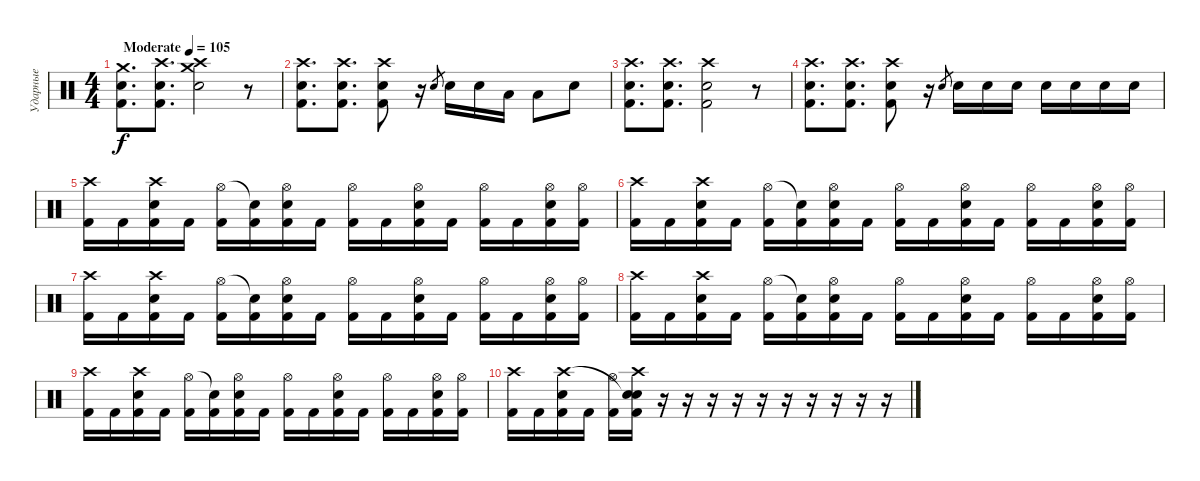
\track ("Ударные" "Ударные") {instrument percussion}
\staff {score}
\articulation defaults
\ts (4 4)
\tempo (105 "Moderate")
\clef neutral
\ks c
("Electric Snare (hit)" "Kick (hit) 2" "Crash medium (hit)").8{d dy f} ("Electric Snare (hit)" "Kick (hit) 2" "Crash high (hit)").8{d} ("Electric Snare (hit)" "Crash high (hit)" "Crash medium (hit)").2 r.8 |
("Electric Snare (hit)" "Kick (hit) 2" "Crash high (hit)").8{d} ("Electric Snare (hit)" "Kick (hit) 2" "Crash high (hit)").8{d} ("Electric Snare (hit)" "Crash high (hit)" "Kick (hit) 2").8 r.16 "Electric Snare (hit)".8{gr} "Electric Snare (hit)".16 "Electric Snare (hit)".16 "Low Floor Tom (hit)".16 "Low Floor Tom (hit)".8 "Electric Snare (hit)".8 |
("Electric Snare (hit)" "Kick (hit) 2" "Crash high (hit)").8{d} ("Electric Snare (hit)" "Kick (hit) 2" "Crash high (hit)").8{d} ("Electric Snare (hit)" "Crash high (hit)" "Kick (hit) 2").2 r.8 |
("Electric Snare (hit)" "Kick (hit) 2" "Crash high (hit)").8{d} ("Electric Snare (hit)" "Kick (hit) 2" "Crash high (hit)").8{d} ("Electric Snare (hit)" "Crash high (hit)" "Kick (hit) 2").8 r.16 "Electric Snare (hit)".8{gr} "Electric Snare (hit)".16 "Electric Snare (hit)".16 "Electric Snare (hit)".16 "Electric Snare (hit)".16 "Electric Snare (hit)".16 "Electric Snare (hit)".16 "Electric Snare (hit)".16 |
("Kick (hit) 2" "Crash high (hit)").16 "Kick (hit) 2".16 ("Kick (hit) 2" "Electric Snare (hit)" "Crash high (hit)").16 "Kick (hit) 2".16 ("Kick (hit) 2" "Hi-Hat (open)").16 ("Kick (hit) 2" "Snare (hit)"{t}).16 ("Kick (hit) 2" "Electric Snare (hit)" "Hi-Hat (open)").16 "Kick (hit) 2".16 ("Kick (hit) 2" "Hi-Hat (open)").16 "Kick (hit) 2".16 ("Kick (hit) 2" "Electric Snare (hit)" "Hi-Hat (open)").16 "Kick (hit) 2".16 ("Kick (hit) 2" "Hi-Hat (open)").16 "Kick (hit) 2".16 ("Kick (hit) 2" "Electric Snare (hit)" "Hi-Hat (open)").16 ("Kick (hit) 2" "Hi-Hat (open)").16 |
("Kick (hit) 2" "Crash high (hit)").16 "Kick (hit) 2".16 ("Kick (hit) 2" "Electric Snare (hit)" "Crash high (hit)").16 "Kick (hit) 2".16 ("Kick (hit) 2" "Hi-Hat (open)").16 ("Kick (hit) 2" "Snare (hit)"{t}).16 ("Kick (hit) 2" "Electric Snare (hit)" "Hi-Hat (open)").16 "Kick (hit) 2".16 ("Kick (hit) 2" "Hi-Hat (open)").16 "Kick (hit) 2".16 ("Kick (hit) 2" "Electric Snare (hit)" "Hi-Hat (open)").16 "Kick (hit) 2".16 ("Kick (hit) 2" "Hi-Hat (open)").16 "Kick (hit) 2".16 ("Kick (hit) 2" "Electric Snare (hit)" "Hi-Hat (open)").16 ("Kick (hit) 2" "Hi-Hat (open)").16 |
("Kick (hit) 2" "Crash high (hit)").16 "Kick (hit) 2".16 ("Kick (hit) 2" "Electric Snare (hit)" "Crash high (hit)").16 "Kick (hit) 2".16 ("Kick (hit) 2" "Hi-Hat (open)").16 ("Kick (hit) 2" "Snare (hit)"{t}).16 ("Kick (hit) 2" "Electric Snare (hit)" "Hi-Hat (open)").16 "Kick (hit) 2".16 ("Kick (hit) 2" "Hi-Hat (open)").16 "Kick (hit) 2".16 ("Kick (hit) 2" "Electric Snare (hit)" "Hi-Hat (open)").16 "Kick (hit) 2".16 ("Kick (hit) 2" "Hi-Hat (open)").16 "Kick (hit) 2".16 ("Kick (hit) 2" "Electric Snare (hit)" "Hi-Hat (open)").16 ("Kick (hit) 2" "Hi-Hat (open)").16 |
("Kick (hit) 2" "Crash high (hit)").16 "Kick (hit) 2".16 ("Kick (hit) 2" "Electric Snare (hit)" "Crash high (hit)").16 "Kick (hit) 2".16 ("Kick (hit) 2" "Hi-Hat (open)").16 ("Kick (hit) 2" "Snare (hit)"{t}).16 ("Kick (hit) 2" "Electric Snare (hit)" "Hi-Hat (open)").16 "Kick (hit) 2".16 ("Kick (hit) 2" "Hi-Hat (open)").16 "Kick (hit) 2".16 ("Kick (hit) 2" "Electric Snare (hit)" "Hi-Hat (open)").16 "Kick (hit) 2".16 ("Kick (hit) 2" "Hi-Hat (open)").16 "Kick (hit) 2".16 ("Kick (hit) 2" "Electric Snare (hit)" "Hi-Hat (open)").16 ("Kick (hit) 2" "Hi-Hat (open)").16 |
("Kick (hit) 2" "Crash high (hit)").16 "Kick (hit) 2".16 ("Kick (hit) 2" "Electric Snare (hit)" "Crash high (hit)").16 "Kick (hit) 2".16 ("Kick (hit) 2" "Hi-Hat (open)").16 ("Kick (hit) 2" "Snare (hit)"{t}).16 ("Kick (hit) 2" "Electric Snare (hit)" "Hi-Hat (open)").16 "Kick (hit) 2".16 ("Kick (hit) 2" "Hi-Hat (open)").16 "Kick (hit) 2".16 ("Kick (hit) 2" "Electric Snare (hit)" "Hi-Hat (open)").16 "Kick (hit) 2".16 ("Kick (hit) 2" "Hi-Hat (open)").16 "Kick (hit) 2".16 ("Kick (hit) 2" "Electric Snare (hit)" "Hi-Hat (open)").16 ("Kick (hit) 2" "Hi-Hat (open)").16 |
("Kick (hit) 2" "Crash high (hit)").16 "Kick (hit) 2".16 ("Kick (hit) 2" "Electric Snare (hit)" "Crash high (hit)").16 "Kick (hit) 2".16 ("Kick (hit) 2" "Hi-Hat (open)").16 ("Kick (hit) 2" "Electric Snare (hit)" "Snare (hit)"{t} "Crash high (hit)").16 r.16 r.16 r.16 r.16 r.16 r.16 r.16 r.16 r.16 r.16
